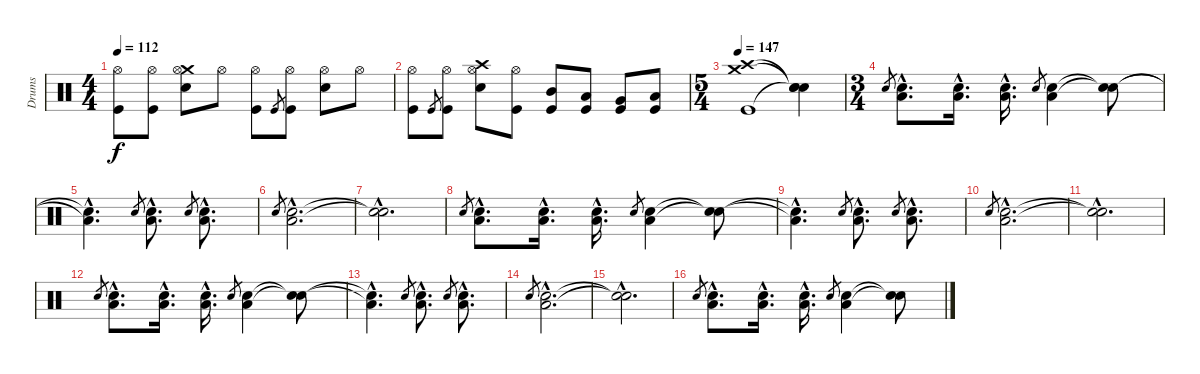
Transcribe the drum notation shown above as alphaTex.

\track ("Drums" "Drums") {instrument percussion}
\staff {score}
\articulation defaults
\ts (4 4)
\tempo 112
\clef neutral
\ks c
("Hi-Hat (open)" "Kick (hit)").8{dy f} ("Hi-Hat (open)" "Kick (hit)").8 ("Crash medium (hit)" "Hi-Hat (open)" "Snare (hit) 2").8 "Hi-Hat (open)".8 ("Hi-Hat (open)" "Kick (hit)").8 "Kick (hit)".8{gr} ("Hi-Hat (open)" "Kick (hit)").8 ("Hi-Hat (open)" "Snare (hit) 2").8 "Hi-Hat (open)".8 |
("Hi-Hat (open)" "Kick (hit)").8 "Kick (hit)".8{gr} ("Hi-Hat (open)" "Kick (hit)").8 ("Crash high (hit)" "Hi-Hat (open)" "Snare (hit) 2").8 ("Hi-Hat (open)" "Kick (hit)").8 ("Mid Tom (hit)" "Kick (hit)").8 ("Low Tom (hit)" "Kick (hit)").8 ("Very Low Tom (hit)" "Kick (hit)").8 ("Low Floor Tom (hit)" "Kick (hit)").8 |
\ts (5 4)
\tempo 147
("Crash high (hit)" "Crash medium (hit)" "Kick (hit)").1 ("Snare (hit)"{t} "Snare (hit)"{t} "Snare (hit)"{t}).4 |
\ts (3 4)
"Snare (hit) 2".8{gr} ("Snare (hit) 2"{hac} "Low Floor Tom (hit)"{hac}).8{d volume 16} ("Snare (hit) 2"{hac} "Low Floor Tom (hit)"{hac}).16{d} ("Snare (hit) 2"{hac} "Low Floor Tom (hit)"{hac}).16{d} "Snare (hit) 2".8{gr} ("Snare (hit) 2" "Low Floor Tom (hit)").4 ("Snare (hit)"{t} "Snare (hit)"{t}).8 |
("Snare (hit) 2"{hac t} "Low Floor Tom (hit)"{hac t}).4{d} "Snare (hit) 2".8{gr} ("Snare (hit) 2"{hac} "Low Floor Tom (hit)"{hac}).8{d} "Snare (hit) 2".8{gr} ("Snare (hit) 2"{hac} "Low Floor Tom (hit)"{hac}).8{d} |
"Snare (hit) 2".8{gr} ("Snare (hit) 2"{hac} "Low Floor Tom (hit)"{hac}).2{d} |
("Snare (hit)"{hac t} "Snare (hit)"{hac t}).2{d} |
"Snare (hit) 2".8{gr} ("Snare (hit) 2"{hac} "Low Floor Tom (hit)"{hac}).8{d} ("Snare (hit) 2"{hac} "Low Floor Tom (hit)"{hac}).16{d} ("Snare (hit) 2"{hac} "Low Floor Tom (hit)"{hac}).16{d} "Snare (hit) 2".8{gr} ("Snare (hit) 2" "Low Floor Tom (hit)").4 ("Snare (hit)"{t} "Snare (hit)"{t}).8 |
("Snare (hit) 2"{hac t} "Low Floor Tom (hit)"{hac t}).4{d} "Snare (hit) 2".8{gr} ("Snare (hit) 2"{hac} "Low Floor Tom (hit)"{hac}).8{d} "Snare (hit) 2".8{gr} ("Snare (hit) 2"{hac} "Low Floor Tom (hit)"{hac}).8{d} |
"Snare (hit) 2".8{gr} ("Snare (hit) 2"{hac} "Low Floor Tom (hit)"{hac}).2{d} |
("Snare (hit)"{hac t} "Snare (hit)"{hac t}).2{d} |
"Snare (hit) 2".8{gr} ("Snare (hit) 2"{hac} "Low Floor Tom (hit)"{hac}).8{d volume 16} ("Snare (hit) 2"{hac} "Low Floor Tom (hit)"{hac}).16{d} ("Snare (hit) 2"{hac} "Low Floor Tom (hit)"{hac}).16{d} "Snare (hit) 2".8{gr} ("Snare (hit) 2" "Low Floor Tom (hit)").4 ("Snare (hit)"{t} "Snare (hit)"{t}).8 |
("Snare (hit) 2"{hac t} "Low Floor Tom (hit)"{hac t}).4{d} "Snare (hit) 2".8{gr} ("Snare (hit) 2"{hac} "Low Floor Tom (hit)"{hac}).8{d} "Snare (hit) 2".8{gr} ("Snare (hit) 2"{hac} "Low Floor Tom (hit)"{hac}).8{d} |
"Snare (hit) 2".8{gr} ("Snare (hit) 2"{hac} "Low Floor Tom (hit)"{hac}).2{d} |
("Snare (hit)"{hac t} "Snare (hit)"{hac t}).2{d} |
"Snare (hit) 2".8{gr} ("Snare (hit) 2"{hac} "Low Floor Tom (hit)"{hac}).8{d volume 16} ("Snare (hit) 2"{hac} "Low Floor Tom (hit)"{hac}).16{d} ("Snare (hit) 2"{hac} "Low Floor Tom (hit)"{hac}).16{d} "Snare (hit) 2".8{gr} ("Snare (hit) 2" "Low Floor Tom (hit)").4 ("Snare (hit)"{t} "Snare (hit)"{t}).8
